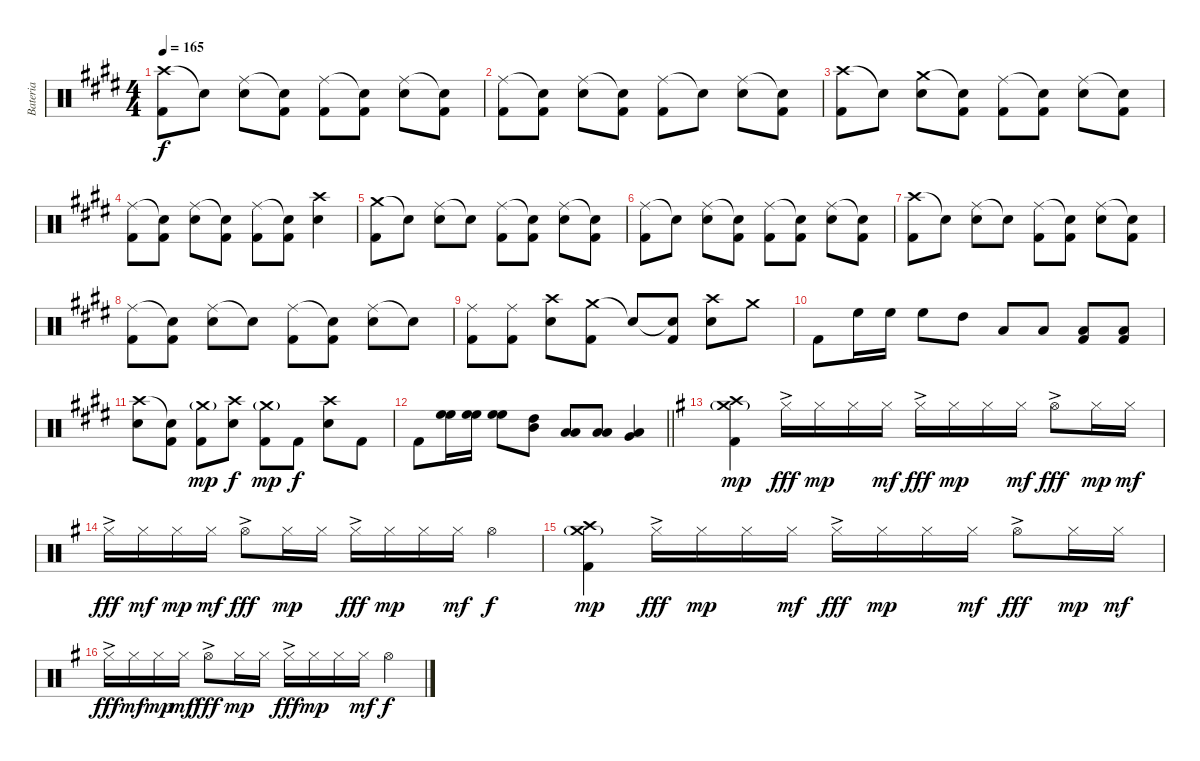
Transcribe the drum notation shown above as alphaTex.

\track ("Bateria" "Bateria") {instrument percussion}
\staff {score}
\articulation defaults
\ts (4 4)
\tempo 165
\clef neutral
\ks e
("Crash high (hit)" "Kick (hit) 2").8{dy f} "Snare (hit)"{t}.8 ("Ride (middle)" "Electric Snare (hit)").8 ("Snare (hit)"{t} "Kick (hit) 2").8 ("Ride (middle)" "Kick (hit) 2").8 ("Snare (hit)"{t} "Kick (hit) 2").8 ("Ride (middle)" "Electric Snare (hit)").8 ("Snare (hit)"{t} "Kick (hit) 2").8 |
("Ride (middle)" "Kick (hit) 2").8 ("Snare (hit)"{t} "Kick (hit) 2").8 ("Ride (middle)" "Electric Snare (hit)").8 ("Snare (hit)"{t} "Kick (hit) 2").8 ("Ride (middle)" "Kick (hit) 2").8 "Snare (hit)"{t}.8 ("Ride (middle)" "Electric Snare (hit)").8 ("Snare (hit)"{t} "Kick (hit) 2").8 |
("Crash high (hit)" "Kick (hit) 2").8 "Snare (hit)"{t}.8 ("Crash medium (hit)" "Electric Snare (hit)").8 ("Snare (hit)"{t} "Kick (hit) 2").8 ("Ride (middle)" "Kick (hit) 2").8 ("Snare (hit)"{t} "Kick (hit) 2").8 ("Ride (middle)" "Electric Snare (hit)").8 ("Snare (hit)"{t} "Kick (hit) 2").8 |
("Ride (middle)" "Kick (hit) 2").8 ("Snare (hit)"{t} "Kick (hit) 2").8 ("Ride (middle)" "Electric Snare (hit)").8 ("Snare (hit)"{t} "Kick (hit) 2").8 ("Ride (middle)" "Kick (hit) 2").8 ("Snare (hit)"{t} "Kick (hit) 2").8 ("Crash high (hit)" "Electric Snare (hit)").4 |
("Crash medium (hit)" "Kick (hit) 2").8 "Snare (hit)"{t}.8 ("Ride (middle)" "Electric Snare (hit)").8 "Snare (hit)"{t}.8 ("Ride (middle)" "Kick (hit) 2").8 ("Snare (hit)"{t} "Kick (hit) 2").8 ("Ride (middle)" "Electric Snare (hit)").8 ("Snare (hit)"{t} "Kick (hit) 2").8 |
("Ride (middle)" "Kick (hit) 2").8 "Snare (hit)"{t}.8 ("Ride (middle)" "Electric Snare (hit)").8 ("Snare (hit)"{t} "Kick (hit) 2").8 ("Ride (middle)" "Kick (hit) 2").8 ("Snare (hit)"{t} "Kick (hit) 2").8 ("Ride (middle)" "Electric Snare (hit)").8 ("Snare (hit)"{t} "Kick (hit) 2").8 |
("Crash high (hit)" "Kick (hit) 2").8 "Snare (hit)"{t}.8 ("Ride (middle)" "Electric Snare (hit)").8 "Snare (hit)"{t}.8 ("Ride (middle)" "Kick (hit) 2").8 ("Snare (hit)"{t} "Kick (hit) 2").8 ("Ride (middle)" "Electric Snare (hit)").8 ("Snare (hit)"{t} "Kick (hit) 2").8 |
("Ride (middle)" "Kick (hit) 2").8 ("Snare (hit)"{t} "Kick (hit) 2").8 ("Ride (middle)" "Electric Snare (hit)").8 "Snare (hit)"{t}.8 ("Ride (middle)" "Kick (hit) 2").8 ("Snare (hit)"{t} "Kick (hit) 2").8 ("Ride (middle)" "Electric Snare (hit)").8 "Snare (hit)"{t}.8 |
("Ride (middle)" "Kick (hit) 2").8 ("Ride (middle)" "Kick (hit) 2").8 ("Crash high (hit)" "Electric Snare (hit)").8 ("Crash medium (hit)" "Kick (hit) 2").8 "Snare (hit)"{t}.8 ("Snare (hit)"{t} "Kick (hit) 2").8 ("Crash high (hit)" "Electric Snare (hit)").8 "Crash medium (hit)".8 |
"Kick (hit) 2".8 "High Floor Tom (hit)".16 "High Floor Tom (hit)".16 "High Floor Tom (hit)".8 "High Tom (hit)".8 "Low Tom (hit)".8 "Low Tom (hit)".8 ("Low Floor Tom (hit)" "Kick (hit) 2").8 ("Low Floor Tom (hit)" "Kick (hit) 2").8 |
("Crash high (hit)" "Electric Snare (hit)").8 ("Snare (hit)"{t} "Kick (hit) 2").8 ("Crash medium (hit)"{g} "Kick (hit) 2").8{dy mp} ("Crash high (hit)" "Electric Snare (hit)").8{dy f} ("Crash medium (hit)"{g} "Kick (hit) 2").8{dy mp} "Kick (hit) 2".8{dy f} ("Crash high (hit)" "Electric Snare (hit)").8 "Kick (hit) 2".8 |
\barLineRight lightlight "Kick (hit) 2".8
("High Floor Tom (hit)" "High Floor Tom (hit)").16 ("High Floor Tom (hit)" "High Floor Tom (hit)").16 ("High Floor Tom (hit)" "High Floor Tom (hit)").8 ("High Tom (hit)" "Mid Tom (hit)").8 ("Low Tom (hit)" "Low Tom (hit)").8 ("Low Tom (hit)" "Low Tom (hit)").8 ("Low Floor Tom (hit)" "Very Low Tom (hit)").4 |
\ks g
("Crash high (hit)" "Crash medium (hit)"{g} "Kick (hit) 2").4{dy mp} "Hi-Hat (closed)"{ac}.16{dy fff} "Hi-Hat (closed)".16{dy mp} "Hi-Hat (closed)".16 "Hi-Hat (closed)".16{dy mf} "Hi-Hat (closed)"{ac}.16{dy fff} "Hi-Hat (closed)".16{dy mp} "Hi-Hat (closed)".16 "Hi-Hat (closed)".16{dy mf} "Hi-Hat (open)"{ac}.8{dy fff} "Hi-Hat (closed)".16{dy mp} "Hi-Hat (closed)".16{dy mf} |
"Hi-Hat (closed)"{ac}.16{dy fff} "Hi-Hat (closed)".16{dy mf} "Hi-Hat (closed)".16{dy mp} "Hi-Hat (closed)".16{dy mf} "Hi-Hat (open)"{ac}.8{dy fff} "Hi-Hat (closed)".16{dy mp} "Hi-Hat (closed)".16 "Hi-Hat (closed)"{ac}.16{dy fff} "Hi-Hat (closed)".16{dy mp} "Hi-Hat (closed)".16 "Hi-Hat (closed)".16{dy mf} "Hi-Hat (open)".4{dy f} |
("Crash high (hit)" "Crash medium (hit)"{g} "Kick (hit) 2").4{dy mp} "Hi-Hat (closed)"{ac}.16{dy fff} "Hi-Hat (closed)".16{dy mp} "Hi-Hat (closed)".16 "Hi-Hat (closed)".16{dy mf} "Hi-Hat (closed)"{ac}.16{dy fff} "Hi-Hat (closed)".16{dy mp} "Hi-Hat (closed)".16 "Hi-Hat (closed)".16{dy mf} "Hi-Hat (open)"{ac}.8{dy fff} "Hi-Hat (closed)".16{dy mp} "Hi-Hat (closed)".16{dy mf} |
"Hi-Hat (closed)"{ac}.16{dy fff} "Hi-Hat (closed)".16{dy mf} "Hi-Hat (closed)".16{dy mp} "Hi-Hat (closed)".16{dy mf} "Hi-Hat (open)"{ac}.8{dy fff} "Hi-Hat (closed)".16{dy mp} "Hi-Hat (closed)".16 "Hi-Hat (closed)"{ac}.16{dy fff} "Hi-Hat (closed)".16{dy mp} "Hi-Hat (closed)".16 "Hi-Hat (closed)".16{dy mf} "Hi-Hat (open)".4{dy f}
